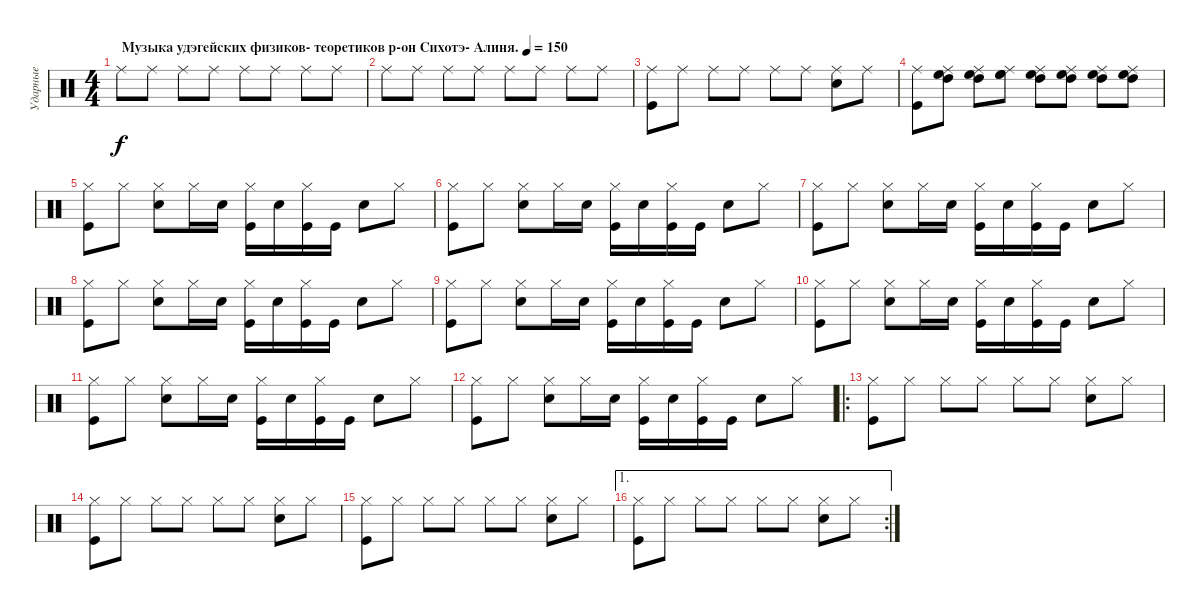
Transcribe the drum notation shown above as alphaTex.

\track ("Ударные" "Ударные") {instrument percussion}
\staff {score}
\articulation defaults
\ts (4 4)
\tempo (150 "Музыка удэгейских физиков- теоретиков р-он Сихотэ- Алиня.")
\clef neutral
\ks c "Ride (middle)".8{dy f} "Ride (middle)".8 "Ride (middle)".8 "Ride (middle)".8 "Ride (middle)".8 "Ride (middle)".8 "Ride (middle)".8 "Ride (middle)".8
|
"Ride (middle)".8 "Ride (middle)".8 "Ride (middle)".8 "Ride (middle)".8 "Ride (middle)".8 "Ride (middle)".8 "Ride (middle)".8 "Ride (middle)".8 |
("Kick (hit)" "Ride (middle)").8 "Ride (middle)".8 "Ride (middle)".8 "Ride (middle)".8 "Ride (middle)".8 "Ride (middle)".8 ("Snare (hit) 2" "Ride (middle)").8 "Ride (middle)".8 |
("Kick (hit)" "Ride (middle)").8 ("High Tom (hit)" "Ride (middle)" "High Floor Tom (hit)").8 ("High Floor Tom (hit)" "Ride (middle)" "High Tom (hit)").8 ("High Floor Tom (hit)" "Ride (middle)" "High Floor Tom (hit)").8 ("High Tom (hit)" "Ride (middle)" "High Floor Tom (hit)").8 ("High Tom (hit)" "Ride (middle)" "High Floor Tom (hit)").8 ("High Tom (hit)" "Ride (middle)" "High Floor Tom (hit)").8 ("High Tom (hit)" "Ride (middle)" "High Floor Tom (hit)").8 |
("Kick (hit)" "Hi-Hat (closed)").8 "Hi-Hat (closed)".8 ("Snare (hit) 2" "Hi-Hat (closed)").8 "Hi-Hat (closed)".16 "Snare (hit) 2".16 ("Kick (hit)" "Hi-Hat (closed)").16 "Snare (hit) 2".16 ("Kick (hit)" "Hi-Hat (closed)").16 "Kick (hit)".16 "Snare (hit) 2".8 "Hi-Hat (closed)".8 |
("Kick (hit)" "Hi-Hat (closed)").8 "Hi-Hat (closed)".8 ("Snare (hit) 2" "Hi-Hat (closed)").8 "Hi-Hat (closed)".16 "Snare (hit) 2".16 ("Kick (hit)" "Hi-Hat (closed)").16 "Snare (hit) 2".16 ("Kick (hit)" "Hi-Hat (closed)").16 "Kick (hit)".16 "Snare (hit) 2".8 "Hi-Hat (closed)".8 |
("Kick (hit)" "Hi-Hat (closed)").8 "Hi-Hat (closed)".8 ("Snare (hit) 2" "Hi-Hat (closed)").8 "Hi-Hat (closed)".16 "Snare (hit) 2".16 ("Kick (hit)" "Hi-Hat (closed)").16 "Snare (hit) 2".16 ("Kick (hit)" "Hi-Hat (closed)").16 "Kick (hit)".16 "Snare (hit) 2".8 "Hi-Hat (closed)".8 |
("Kick (hit)" "Hi-Hat (closed)").8 "Hi-Hat (closed)".8 ("Snare (hit) 2" "Hi-Hat (closed)").8 "Hi-Hat (closed)".16 "Snare (hit) 2".16 ("Kick (hit)" "Hi-Hat (closed)").16 "Snare (hit) 2".16 ("Kick (hit)" "Hi-Hat (closed)").16 "Kick (hit)".16 "Snare (hit) 2".8 "Hi-Hat (closed)".8 |
("Kick (hit)" "Hi-Hat (closed)").8 "Hi-Hat (closed)".8 ("Snare (hit) 2" "Hi-Hat (closed)").8 "Hi-Hat (closed)".16 "Snare (hit) 2".16 ("Kick (hit)" "Hi-Hat (closed)").16 "Snare (hit) 2".16 ("Kick (hit)" "Hi-Hat (closed)").16 "Kick (hit)".16 "Snare (hit) 2".8 "Hi-Hat (closed)".8 |
("Kick (hit)" "Hi-Hat (closed)").8 "Hi-Hat (closed)".8 ("Snare (hit) 2" "Hi-Hat (closed)").8 "Hi-Hat (closed)".16 "Snare (hit) 2".16 ("Kick (hit)" "Hi-Hat (closed)").16 "Snare (hit) 2".16 ("Kick (hit)" "Hi-Hat (closed)").16 "Kick (hit)".16 "Snare (hit) 2".8 "Hi-Hat (closed)".8 |
("Kick (hit)" "Hi-Hat (closed)").8 "Hi-Hat (closed)".8 ("Snare (hit) 2" "Hi-Hat (closed)").8 "Hi-Hat (closed)".16 "Snare (hit) 2".16 ("Kick (hit)" "Hi-Hat (closed)").16 "Snare (hit) 2".16 ("Kick (hit)" "Hi-Hat (closed)").16 "Kick (hit)".16 "Snare (hit) 2".8 "Hi-Hat (closed)".8 |
("Kick (hit)" "Hi-Hat (closed)").8 "Hi-Hat (closed)".8 ("Snare (hit) 2" "Hi-Hat (closed)").8 "Hi-Hat (closed)".16 "Snare (hit) 2".16 ("Kick (hit)" "Hi-Hat (closed)").16 "Snare (hit) 2".16 ("Kick (hit)" "Hi-Hat (closed)").16 "Kick (hit)".16 "Snare (hit) 2".8 "Hi-Hat (closed)".8 |
\ro
("Hi-Hat (closed)" "Kick (hit)").8 "Hi-Hat (closed)".8 "Hi-Hat (closed)".8 "Hi-Hat (closed)".8 "Hi-Hat (closed)".8 "Hi-Hat (closed)".8 ("Hi-Hat (closed)" "Snare (hit) 2").8 "Hi-Hat (closed)".8 |
("Hi-Hat (closed)" "Kick (hit)").8 "Hi-Hat (closed)".8 "Hi-Hat (closed)".8 "Hi-Hat (closed)".8 "Hi-Hat (closed)".8 "Hi-Hat (closed)".8 ("Hi-Hat (closed)" "Snare (hit) 2").8 "Hi-Hat (closed)".8 |
("Hi-Hat (closed)" "Kick (hit)").8 "Hi-Hat (closed)".8 "Hi-Hat (closed)".8 "Hi-Hat (closed)".8 "Hi-Hat (closed)".8 "Hi-Hat (closed)".8 ("Hi-Hat (closed)" "Snare (hit) 2").8 "Hi-Hat (closed)".8 |
\ae 1
\rc 2
("Hi-Hat (closed)" "Kick (hit)").8 "Hi-Hat (closed)".8 "Hi-Hat (closed)".8 "Hi-Hat (closed)".8 "Hi-Hat (closed)".8 "Hi-Hat (closed)".8 ("Hi-Hat (closed)" "Snare (hit) 2").8 "Hi-Hat (closed)".8
